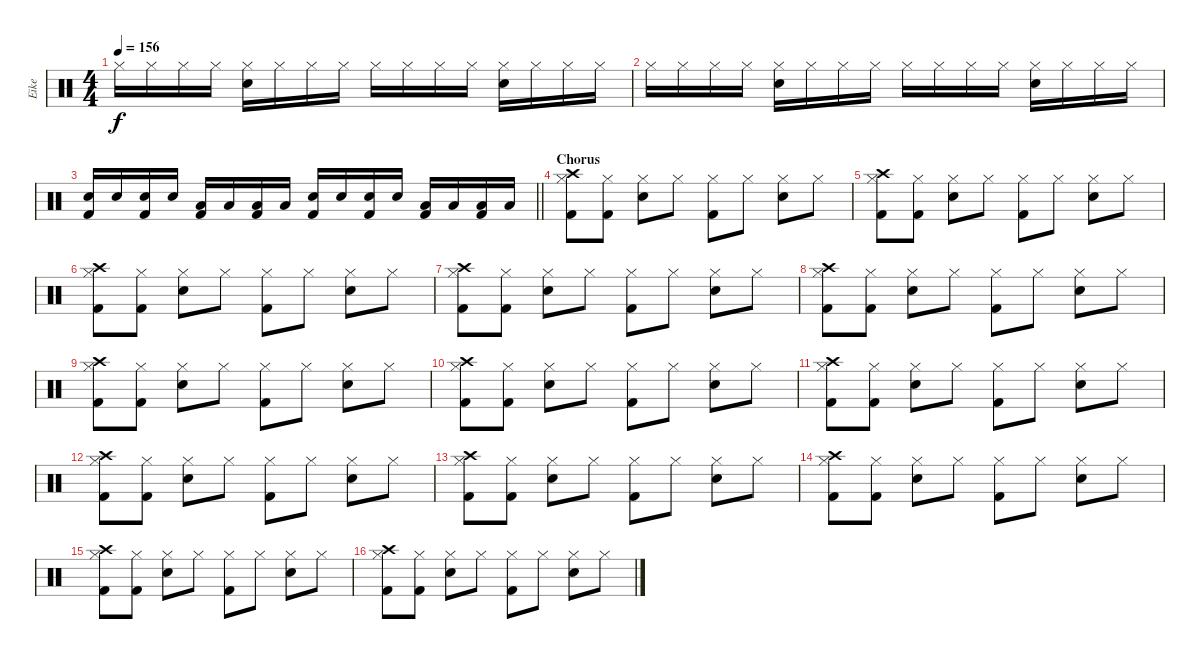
\track ("Eike" "Eike") {instrument percussion}
\staff {score}
\articulation defaults
\ts (4 4)
\tempo 156
\clef neutral
\ks c "Hi-Hat (closed)".16{dy f} "Hi-Hat (closed)".16 "Hi-Hat (closed)".16 "Hi-Hat (closed)".16
("Hi-Hat (closed)" "Snare (hit) 2").16 "Hi-Hat (closed)".16 "Hi-Hat (closed)".16 "Hi-Hat (closed)".16 "Hi-Hat (closed)".16 "Hi-Hat (closed)".16 "Hi-Hat (closed)".16 "Hi-Hat (closed)".16 ("Hi-Hat (closed)" "Snare (hit) 2").16 "Hi-Hat (closed)".16 "Hi-Hat (closed)".16 "Hi-Hat (closed)".16 |
"Hi-Hat (closed)".16 "Hi-Hat (closed)".16 "Hi-Hat (closed)".16 "Hi-Hat (closed)".16 ("Hi-Hat (closed)" "Snare (hit) 2").16 "Hi-Hat (closed)".16 "Hi-Hat (closed)".16 "Hi-Hat (closed)".16 "Hi-Hat (closed)".16 "Hi-Hat (closed)".16 "Hi-Hat (closed)".16 "Hi-Hat (closed)".16 ("Hi-Hat (closed)" "Snare (hit) 2").16 "Hi-Hat (closed)".16 "Hi-Hat (closed)".16 "Hi-Hat (closed)".16 |
\barLineRight lightlight
("Snare (hit) 2" "Kick (hit) 2").16 "Snare (hit) 2".16 ("Snare (hit) 2" "Kick (hit) 2").16 "Snare (hit) 2".16 ("Low Tom (hit)" "Kick (hit) 2").16 "Low Tom (hit)".16 ("Low Tom (hit)" "Kick (hit) 2").16 "Low Tom (hit)".16 ("Snare (hit) 2" "Kick (hit) 2").16 "Snare (hit) 2".16 ("Snare (hit) 2" "Kick (hit) 2").16 "Snare (hit) 2".16 ("Low Tom (hit)" "Kick (hit) 2").16 "Low Tom (hit)".16 ("Low Tom (hit)" "Kick (hit) 2").16 "Low Tom (hit)".16 |
\section ("" "Chorus")
("Hi-Hat (closed)" "Kick (hit) 2" "Crash high (hit)").8 ("Hi-Hat (closed)" "Kick (hit) 2").8 ("Hi-Hat (closed)" "Snare (hit) 2").8 "Hi-Hat (closed)".8 ("Hi-Hat (closed)" "Kick (hit) 2").8 "Hi-Hat (closed)".8 ("Hi-Hat (closed)" "Snare (hit) 2").8 "Hi-Hat (closed)".8 |
("Hi-Hat (closed)" "Kick (hit) 2" "Crash high (hit)").8 ("Hi-Hat (closed)" "Kick (hit) 2").8 ("Hi-Hat (closed)" "Snare (hit) 2").8 "Hi-Hat (closed)".8 ("Hi-Hat (closed)" "Kick (hit) 2").8 "Hi-Hat (closed)".8 ("Hi-Hat (closed)" "Snare (hit) 2").8 "Hi-Hat (closed)".8 |
("Hi-Hat (closed)" "Kick (hit) 2" "Crash high (hit)").8 ("Hi-Hat (closed)" "Kick (hit) 2").8 ("Hi-Hat (closed)" "Snare (hit) 2").8 "Hi-Hat (closed)".8 ("Hi-Hat (closed)" "Kick (hit) 2").8 "Hi-Hat (closed)".8 ("Hi-Hat (closed)" "Snare (hit) 2").8 "Hi-Hat (closed)".8 |
("Hi-Hat (closed)" "Kick (hit) 2" "Crash high (hit)").8 ("Hi-Hat (closed)" "Kick (hit) 2").8 ("Hi-Hat (closed)" "Snare (hit) 2").8 "Hi-Hat (closed)".8 ("Hi-Hat (closed)" "Kick (hit) 2").8 "Hi-Hat (closed)".8 ("Hi-Hat (closed)" "Snare (hit) 2").8 "Hi-Hat (closed)".8 |
("Hi-Hat (closed)" "Kick (hit) 2" "Crash high (hit)").8 ("Hi-Hat (closed)" "Kick (hit) 2").8 ("Hi-Hat (closed)" "Snare (hit) 2").8 "Hi-Hat (closed)".8 ("Hi-Hat (closed)" "Kick (hit) 2").8 "Hi-Hat (closed)".8 ("Hi-Hat (closed)" "Snare (hit) 2").8 "Hi-Hat (closed)".8 |
("Hi-Hat (closed)" "Kick (hit) 2" "Crash high (hit)").8 ("Hi-Hat (closed)" "Kick (hit) 2").8 ("Hi-Hat (closed)" "Snare (hit) 2").8 "Hi-Hat (closed)".8 ("Hi-Hat (closed)" "Kick (hit) 2").8 "Hi-Hat (closed)".8 ("Hi-Hat (closed)" "Snare (hit) 2").8 "Hi-Hat (closed)".8 |
("Hi-Hat (closed)" "Kick (hit) 2" "Crash high (hit)").8 ("Hi-Hat (closed)" "Kick (hit) 2").8 ("Hi-Hat (closed)" "Snare (hit) 2").8 "Hi-Hat (closed)".8 ("Hi-Hat (closed)" "Kick (hit) 2").8 "Hi-Hat (closed)".8 ("Hi-Hat (closed)" "Snare (hit) 2").8 "Hi-Hat (closed)".8 |
("Hi-Hat (closed)" "Kick (hit) 2" "Crash high (hit)").8 ("Hi-Hat (closed)" "Kick (hit) 2").8 ("Hi-Hat (closed)" "Snare (hit) 2").8 "Hi-Hat (closed)".8 ("Hi-Hat (closed)" "Kick (hit) 2").8 "Hi-Hat (closed)".8 ("Hi-Hat (closed)" "Snare (hit) 2").8 "Hi-Hat (closed)".8 |
("Hi-Hat (closed)" "Kick (hit) 2" "Crash high (hit)").8 ("Hi-Hat (closed)" "Kick (hit) 2").8 ("Hi-Hat (closed)" "Snare (hit) 2").8 "Hi-Hat (closed)".8 ("Hi-Hat (closed)" "Kick (hit) 2").8 "Hi-Hat (closed)".8 ("Hi-Hat (closed)" "Snare (hit) 2").8 "Hi-Hat (closed)".8 |
("Hi-Hat (closed)" "Kick (hit) 2" "Crash high (hit)").8 ("Hi-Hat (closed)" "Kick (hit) 2").8 ("Hi-Hat (closed)" "Snare (hit) 2").8 "Hi-Hat (closed)".8 ("Hi-Hat (closed)" "Kick (hit) 2").8 "Hi-Hat (closed)".8 ("Hi-Hat (closed)" "Snare (hit) 2").8 "Hi-Hat (closed)".8 |
("Hi-Hat (closed)" "Kick (hit) 2" "Crash high (hit)").8 ("Hi-Hat (closed)" "Kick (hit) 2").8 ("Hi-Hat (closed)" "Snare (hit) 2").8 "Hi-Hat (closed)".8 ("Hi-Hat (closed)" "Kick (hit) 2").8 "Hi-Hat (closed)".8 ("Hi-Hat (closed)" "Snare (hit) 2").8 "Hi-Hat (closed)".8 |
("Hi-Hat (closed)" "Kick (hit) 2" "Crash high (hit)").8 ("Hi-Hat (closed)" "Kick (hit) 2").8 ("Hi-Hat (closed)" "Snare (hit) 2").8 "Hi-Hat (closed)".8 ("Hi-Hat (closed)" "Kick (hit) 2").8 "Hi-Hat (closed)".8 ("Hi-Hat (closed)" "Snare (hit) 2").8 "Hi-Hat (closed)".8 |
("Hi-Hat (closed)" "Kick (hit) 2" "Crash high (hit)").8 ("Hi-Hat (closed)" "Kick (hit) 2").8 ("Hi-Hat (closed)" "Snare (hit) 2").8 "Hi-Hat (closed)".8 ("Hi-Hat (closed)" "Kick (hit) 2").8 "Hi-Hat (closed)".8 ("Hi-Hat (closed)" "Snare (hit) 2").8 "Hi-Hat (closed)".8
